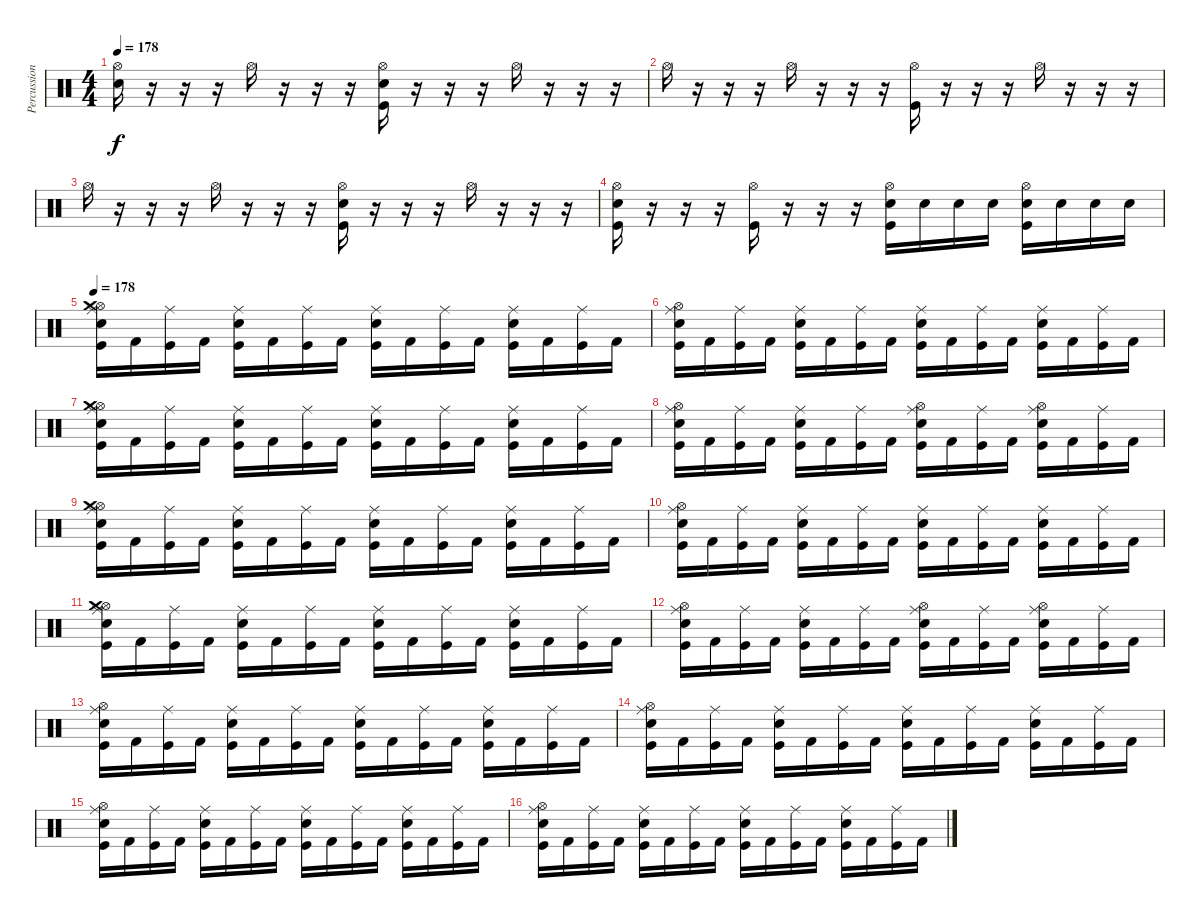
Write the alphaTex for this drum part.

\track ("Percussions" "Percussion") {instrument percussion}
\staff {score}
\articulation defaults
\ts (4 4)
\tempo 178
\clef neutral
\ks c
("Hi-Hat (open)" "Snare (hit) 2").16{dy f} r.16 r.16 r.16 "Hi-Hat (open)".16 r.16 r.16 r.16 ("Hi-Hat (open)" "Electric Snare (hit)" "Kick (hit)").16 r.16 r.16 r.16 "Hi-Hat (open)".16 r.16 r.16 r.16 |
"Hi-Hat (open)".16 r.16 r.16 r.16 "Hi-Hat (open)".16 r.16 r.16 r.16 ("Hi-Hat (open)" "Kick (hit)").16 r.16 r.16 r.16 "Hi-Hat (open)".16 r.16 r.16 r.16 |
"Hi-Hat (open)".16 r.16 r.16 r.16 "Hi-Hat (open)".16 r.16 r.16 r.16 ("Hi-Hat (open)" "Electric Snare (hit)" "Kick (hit)").16 r.16 r.16 r.16 "Hi-Hat (open)".16 r.16 r.16 r.16 |
("Hi-Hat (open)" "Snare (hit) 2" "Kick (hit)").16 r.16 r.16 r.16 ("Hi-Hat (open)" "Kick (hit)").16 r.16 r.16 r.16 ("Hi-Hat (open)" "Snare (hit) 2" "Kick (hit)").16 "Snare (hit) 2".16 "Snare (hit) 2".16 "Snare (hit) 2".16 ("Hi-Hat (open)" "Electric Snare (hit)" "Kick (hit)").16 "Electric Snare (hit)".16 "Electric Snare (hit)".16 "Electric Snare (hit)".16 |
\tempo 178
("Electric Snare (hit)" "Ride (middle)" "Hi-Hat (open)" "Crash medium (hit)" "Kick (hit)").16 "Kick (hit) 2".16 ("Ride (middle)" "Kick (hit)").16 "Kick (hit) 2".16 ("Electric Snare (hit)" "Ride (middle)" "Kick (hit)").16 "Kick (hit) 2".16 ("Ride (middle)" "Kick (hit)").16 "Kick (hit) 2".16 ("Electric Snare (hit)" "Ride (middle)" "Kick (hit)").16 "Kick (hit) 2".16 ("Ride (middle)" "Kick (hit)").16 "Kick (hit) 2".16 ("Electric Snare (hit)" "Ride (middle)" "Kick (hit)").16 "Kick (hit) 2".16 ("Ride (middle)" "Kick (hit)").16 "Kick (hit) 2".16 |
("Electric Snare (hit)" "Ride (middle)" "Hi-Hat (open)" "Kick (hit)").16 "Kick (hit) 2".16 ("Ride (middle)" "Kick (hit)").16 "Kick (hit) 2".16 ("Electric Snare (hit)" "Ride (middle)" "Kick (hit)").16 "Kick (hit) 2".16 ("Ride (middle)" "Kick (hit)").16 "Kick (hit) 2".16 ("Electric Snare (hit)" "Ride (middle)" "Kick (hit)").16 "Kick (hit) 2".16 ("Ride (middle)" "Kick (hit)").16 "Kick (hit) 2".16 ("Electric Snare (hit)" "Ride (middle)" "Kick (hit)").16 "Kick (hit) 2".16 ("Ride (middle)" "Kick (hit)").16 "Kick (hit) 2".16 |
("Electric Snare (hit)" "Ride (middle)" "Hi-Hat (open)" "Crash medium (hit)" "Kick (hit)").16 "Kick (hit) 2".16 ("Ride (middle)" "Kick (hit)").16 "Kick (hit) 2".16 ("Electric Snare (hit)" "Ride (middle)" "Kick (hit)").16 "Kick (hit) 2".16 ("Ride (middle)" "Kick (hit)").16 "Kick (hit) 2".16 ("Electric Snare (hit)" "Ride (middle)" "Kick (hit)").16 "Kick (hit) 2".16 ("Ride (middle)" "Kick (hit)").16 "Kick (hit) 2".16 ("Electric Snare (hit)" "Ride (middle)" "Kick (hit)").16 "Kick (hit) 2".16 ("Ride (middle)" "Kick (hit)").16 "Kick (hit) 2".16 |
("Electric Snare (hit)" "Ride (middle)" "Hi-Hat (open)" "Kick (hit)").16 "Kick (hit) 2".16 ("Ride (middle)" "Kick (hit)").16 "Kick (hit) 2".16 ("Electric Snare (hit)" "Ride (middle)" "Kick (hit)").16 "Kick (hit) 2".16 ("Ride (middle)" "Kick (hit)").16 "Kick (hit) 2".16 ("Electric Snare (hit)" "Ride (middle)" "Hi-Hat (open)" "Kick (hit)").16 "Kick (hit) 2".16 ("Ride (middle)" "Kick (hit)").16 "Kick (hit) 2".16 ("Electric Snare (hit)" "Ride (middle)" "Hi-Hat (open)" "Kick (hit)").16 "Kick (hit) 2".16 ("Ride (middle)" "Kick (hit)").16 "Kick (hit) 2".16 |
("Electric Snare (hit)" "Ride (middle)" "Hi-Hat (open)" "Crash medium (hit)" "Kick (hit)").16 "Kick (hit) 2".16 ("Ride (middle)" "Kick (hit)").16 "Kick (hit) 2".16 ("Electric Snare (hit)" "Ride (middle)" "Kick (hit)").16 "Kick (hit) 2".16 ("Ride (middle)" "Kick (hit)").16 "Kick (hit) 2".16 ("Electric Snare (hit)" "Ride (middle)" "Kick (hit)").16 "Kick (hit) 2".16 ("Ride (middle)" "Kick (hit)").16 "Kick (hit) 2".16 ("Electric Snare (hit)" "Ride (middle)" "Kick (hit)").16 "Kick (hit) 2".16 ("Ride (middle)" "Kick (hit)").16 "Kick (hit) 2".16 |
("Electric Snare (hit)" "Ride (middle)" "Hi-Hat (open)" "Kick (hit)").16 "Kick (hit) 2".16 ("Ride (middle)" "Kick (hit)").16 "Kick (hit) 2".16 ("Electric Snare (hit)" "Ride (middle)" "Kick (hit)").16 "Kick (hit) 2".16 ("Ride (middle)" "Kick (hit)").16 "Kick (hit) 2".16 ("Electric Snare (hit)" "Ride (middle)" "Kick (hit)").16 "Kick (hit) 2".16 ("Ride (middle)" "Kick (hit)").16 "Kick (hit) 2".16 ("Electric Snare (hit)" "Ride (middle)" "Kick (hit)").16 "Kick (hit) 2".16 ("Ride (middle)" "Kick (hit)").16 "Kick (hit) 2".16 |
("Electric Snare (hit)" "Ride (middle)" "Hi-Hat (open)" "Crash medium (hit)" "Kick (hit)").16 "Kick (hit) 2".16 ("Ride (middle)" "Kick (hit)").16 "Kick (hit) 2".16 ("Electric Snare (hit)" "Ride (middle)" "Kick (hit)").16 "Kick (hit) 2".16 ("Ride (middle)" "Kick (hit)").16 "Kick (hit) 2".16 ("Electric Snare (hit)" "Ride (middle)" "Kick (hit)").16 "Kick (hit) 2".16 ("Ride (middle)" "Kick (hit)").16 "Kick (hit) 2".16 ("Electric Snare (hit)" "Ride (middle)" "Kick (hit)").16 "Kick (hit) 2".16 ("Ride (middle)" "Kick (hit)").16 "Kick (hit) 2".16 |
("Electric Snare (hit)" "Ride (middle)" "Hi-Hat (open)" "Kick (hit)").16 "Kick (hit) 2".16 ("Ride (middle)" "Kick (hit)").16 "Kick (hit) 2".16 ("Electric Snare (hit)" "Ride (middle)" "Kick (hit)").16 "Kick (hit) 2".16 ("Ride (middle)" "Kick (hit)").16 "Kick (hit) 2".16 ("Electric Snare (hit)" "Ride (middle)" "Hi-Hat (open)" "Kick (hit)").16 "Kick (hit) 2".16 ("Ride (middle)" "Kick (hit)").16 "Kick (hit) 2".16 ("Electric Snare (hit)" "Ride (middle)" "Hi-Hat (open)" "Kick (hit)").16 "Kick (hit) 2".16 ("Ride (middle)" "Kick (hit)").16 "Kick (hit) 2".16 |
("Electric Snare (hit)" "Ride (middle)" "Hi-Hat (open)" "Kick (hit)").16 "Kick (hit) 2".16 ("Ride (middle)" "Kick (hit)").16 "Kick (hit) 2".16 ("Electric Snare (hit)" "Ride (middle)" "Kick (hit)").16 "Kick (hit) 2".16 ("Ride (middle)" "Kick (hit)").16 "Kick (hit) 2".16 ("Electric Snare (hit)" "Ride (middle)" "Kick (hit)").16 "Kick (hit) 2".16 ("Ride (middle)" "Kick (hit)").16 "Kick (hit) 2".16 ("Electric Snare (hit)" "Ride (middle)" "Kick (hit)").16 "Kick (hit) 2".16 ("Ride (middle)" "Kick (hit)").16 "Kick (hit) 2".16 |
("Electric Snare (hit)" "Ride (middle)" "Hi-Hat (open)" "Kick (hit)").16 "Kick (hit) 2".16 ("Ride (middle)" "Kick (hit)").16 "Kick (hit) 2".16 ("Electric Snare (hit)" "Ride (middle)" "Kick (hit)").16 "Kick (hit) 2".16 ("Ride (middle)" "Kick (hit)").16 "Kick (hit) 2".16 ("Electric Snare (hit)" "Ride (middle)" "Kick (hit)").16 "Kick (hit) 2".16 ("Ride (middle)" "Kick (hit)").16 "Kick (hit) 2".16 ("Electric Snare (hit)" "Ride (middle)" "Kick (hit)").16 "Kick (hit) 2".16 ("Ride (middle)" "Kick (hit)").16 "Kick (hit) 2".16 |
("Electric Snare (hit)" "Ride (middle)" "Hi-Hat (open)" "Kick (hit)").16 "Kick (hit) 2".16 ("Ride (middle)" "Kick (hit)").16 "Kick (hit) 2".16 ("Electric Snare (hit)" "Ride (middle)" "Kick (hit)").16 "Kick (hit) 2".16 ("Ride (middle)" "Kick (hit)").16 "Kick (hit) 2".16 ("Electric Snare (hit)" "Ride (middle)" "Kick (hit)").16 "Kick (hit) 2".16 ("Ride (middle)" "Kick (hit)").16 "Kick (hit) 2".16 ("Electric Snare (hit)" "Ride (middle)" "Kick (hit)").16 "Kick (hit) 2".16 ("Ride (middle)" "Kick (hit)").16 "Kick (hit) 2".16 |
("Electric Snare (hit)" "Ride (middle)" "Hi-Hat (open)" "Kick (hit)").16 "Kick (hit) 2".16 ("Ride (middle)" "Kick (hit)").16 "Kick (hit) 2".16 ("Electric Snare (hit)" "Ride (middle)" "Kick (hit)").16 "Kick (hit) 2".16 ("Ride (middle)" "Kick (hit)").16 "Kick (hit) 2".16 ("Electric Snare (hit)" "Ride (middle)" "Kick (hit)").16 "Kick (hit) 2".16 ("Ride (middle)" "Kick (hit)").16 "Kick (hit) 2".16 ("Electric Snare (hit)" "Ride (middle)" "Kick (hit)").16 "Kick (hit) 2".16 ("Ride (middle)" "Kick (hit)").16 "Kick (hit) 2".16
